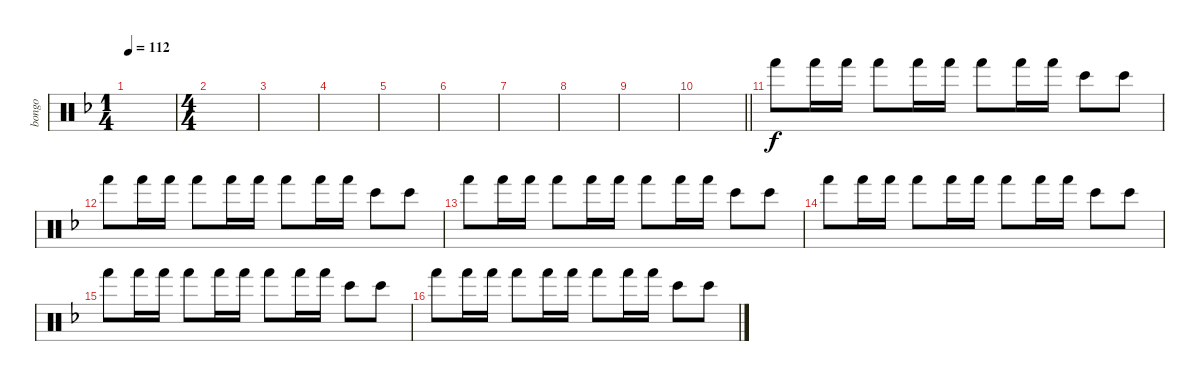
\track ("bongo" "bongo") {instrument percussion}
\staff {score}
\articulation defaults
\ts (1 4)
\tempo 112
\clef neutral
\ks f
|
\ts (4 4)
|
|
|
|
|
|
|
|
\barLineRight lightlight
|
"Hand (hit)".8 "Hand (hit)".16 "Hand (hit)".16 "Hand (hit)".8 "Hand (hit)".16 "Hand (hit)".16 "Hand (hit)".8 "Hand (hit)".16 "Hand (hit)".16 "Bongo High (hit)".8 "Bongo High (hit)".8 |
"Hand (hit)".8 "Hand (hit)".16 "Hand (hit)".16 "Hand (hit)".8 "Hand (hit)".16 "Hand (hit)".16 "Hand (hit)".8 "Hand (hit)".16 "Hand (hit)".16 "Bongo High (hit)".8 "Bongo High (hit)".8 |
"Hand (hit)".8 "Hand (hit)".16 "Hand (hit)".16 "Hand (hit)".8 "Hand (hit)".16 "Hand (hit)".16 "Hand (hit)".8 "Hand (hit)".16 "Hand (hit)".16 "Bongo High (hit)".8 "Bongo High (hit)".8 |
"Hand (hit)".8 "Hand (hit)".16 "Hand (hit)".16 "Hand (hit)".8 "Hand (hit)".16 "Hand (hit)".16 "Hand (hit)".8 "Hand (hit)".16 "Hand (hit)".16 "Bongo High (hit)".8 "Bongo High (hit)".8 |
"Hand (hit)".8 "Hand (hit)".16 "Hand (hit)".16 "Hand (hit)".8 "Hand (hit)".16 "Hand (hit)".16 "Hand (hit)".8 "Hand (hit)".16 "Hand (hit)".16 "Bongo High (hit)".8 "Bongo High (hit)".8 |
"Hand (hit)".8 "Hand (hit)".16 "Hand (hit)".16 "Hand (hit)".8 "Hand (hit)".16 "Hand (hit)".16 "Hand (hit)".8 "Hand (hit)".16 "Hand (hit)".16 "Bongo High (hit)".8 "Bongo High (hit)".8
